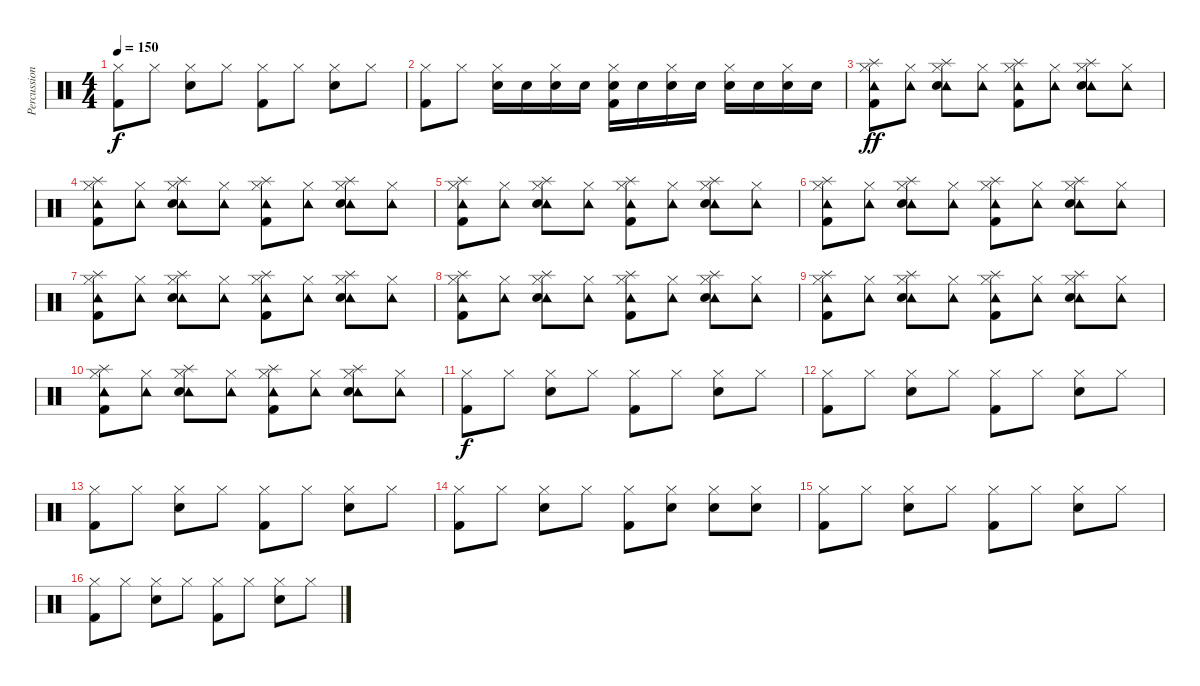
\track ("Percussion" "Percussion") {instrument percussion}
\staff {score}
\articulation defaults
\ts (4 4)
\tempo 150
\clef neutral
\ks c
("Hi-Hat (closed)" "Kick (hit) 2").8{dy f} "Hi-Hat (closed)".8 ("Hi-Hat (closed)" "Electric Snare (hit)").8 "Hi-Hat (closed)".8 ("Hi-Hat (closed)" "Kick (hit) 2").8 "Hi-Hat (closed)".8 ("Hi-Hat (closed)" "Electric Snare (hit)").8 "Hi-Hat (closed)".8 |
("Hi-Hat (closed)" "Kick (hit) 2").8 "Hi-Hat (closed)".8 ("Hi-Hat (closed)" "Electric Snare (hit)").16 "Electric Snare (hit)".16 ("Hi-Hat (closed)" "Electric Snare (hit)").16 "Electric Snare (hit)".16 ("Hi-Hat (closed)" "Electric Snare (hit)" "Kick (hit) 2").16 "Electric Snare (hit)".16 ("Hi-Hat (closed)" "Electric Snare (hit)").16 "Electric Snare (hit)".16 ("Hi-Hat (closed)" "Electric Snare (hit)").16 "Electric Snare (hit)".16 ("Hi-Hat (closed)" "Electric Snare (hit)").16 "Electric Snare (hit)".16 |
("Hi-Hat (closed)" "Tambourine (hit)" "Kick (hit) 2" "Splash (hit)").8{dy ff} ("Hi-Hat (closed)" "Tambourine (hit)").8 ("Hi-Hat (closed)" "Tambourine (hit)" "Electric Snare (hit)" "Splash (hit)").8 ("Hi-Hat (closed)" "Tambourine (hit)").8 ("Hi-Hat (closed)" "Tambourine (hit)" "Kick (hit) 2" "Splash (hit)").8 ("Hi-Hat (closed)" "Tambourine (hit)").8 ("Hi-Hat (closed)" "Tambourine (hit)" "Electric Snare (hit)" "Splash (hit)").8 ("Hi-Hat (closed)" "Tambourine (hit)").8 |
("Hi-Hat (closed)" "Tambourine (hit)" "Kick (hit) 2" "Splash (hit)").8 ("Hi-Hat (closed)" "Tambourine (hit)").8 ("Hi-Hat (closed)" "Tambourine (hit)" "Electric Snare (hit)" "Splash (hit)").8 ("Hi-Hat (closed)" "Tambourine (hit)").8 ("Hi-Hat (closed)" "Tambourine (hit)" "Kick (hit) 2" "Splash (hit)").8 ("Hi-Hat (closed)" "Tambourine (hit)").8 ("Hi-Hat (closed)" "Tambourine (hit)" "Electric Snare (hit)" "Splash (hit)").8 ("Hi-Hat (closed)" "Tambourine (hit)").8 |
("Hi-Hat (closed)" "Tambourine (hit)" "Kick (hit) 2" "Splash (hit)").8 ("Hi-Hat (closed)" "Tambourine (hit)").8 ("Hi-Hat (closed)" "Tambourine (hit)" "Electric Snare (hit)" "Splash (hit)").8 ("Hi-Hat (closed)" "Tambourine (hit)").8 ("Hi-Hat (closed)" "Tambourine (hit)" "Kick (hit) 2" "Splash (hit)").8 ("Hi-Hat (closed)" "Tambourine (hit)").8 ("Hi-Hat (closed)" "Tambourine (hit)" "Electric Snare (hit)" "Splash (hit)").8 ("Hi-Hat (closed)" "Tambourine (hit)").8 |
("Hi-Hat (closed)" "Tambourine (hit)" "Kick (hit) 2" "Splash (hit)").8 ("Hi-Hat (closed)" "Tambourine (hit)").8 ("Hi-Hat (closed)" "Tambourine (hit)" "Electric Snare (hit)" "Splash (hit)").8 ("Hi-Hat (closed)" "Tambourine (hit)").8 ("Hi-Hat (closed)" "Tambourine (hit)" "Kick (hit) 2" "Splash (hit)").8 ("Hi-Hat (closed)" "Tambourine (hit)").8 ("Hi-Hat (closed)" "Tambourine (hit)" "Electric Snare (hit)" "Splash (hit)").8 ("Hi-Hat (closed)" "Tambourine (hit)").8 |
("Hi-Hat (closed)" "Tambourine (hit)" "Kick (hit) 2" "Splash (hit)").8 ("Hi-Hat (closed)" "Tambourine (hit)").8 ("Hi-Hat (closed)" "Tambourine (hit)" "Electric Snare (hit)" "Splash (hit)").8 ("Hi-Hat (closed)" "Tambourine (hit)").8 ("Hi-Hat (closed)" "Tambourine (hit)" "Kick (hit) 2" "Splash (hit)").8 ("Hi-Hat (closed)" "Tambourine (hit)").8 ("Hi-Hat (closed)" "Tambourine (hit)" "Electric Snare (hit)" "Splash (hit)").8 ("Hi-Hat (closed)" "Tambourine (hit)").8 |
("Hi-Hat (closed)" "Tambourine (hit)" "Kick (hit) 2" "Splash (hit)").8 ("Hi-Hat (closed)" "Tambourine (hit)").8 ("Hi-Hat (closed)" "Tambourine (hit)" "Electric Snare (hit)" "Splash (hit)").8 ("Hi-Hat (closed)" "Tambourine (hit)").8 ("Hi-Hat (closed)" "Tambourine (hit)" "Kick (hit) 2" "Splash (hit)").8 ("Hi-Hat (closed)" "Tambourine (hit)").8 ("Hi-Hat (closed)" "Tambourine (hit)" "Electric Snare (hit)" "Splash (hit)").8 ("Hi-Hat (closed)" "Tambourine (hit)").8 |
("Hi-Hat (closed)" "Tambourine (hit)" "Kick (hit) 2" "Splash (hit)").8 ("Hi-Hat (closed)" "Tambourine (hit)").8 ("Hi-Hat (closed)" "Tambourine (hit)" "Electric Snare (hit)" "Splash (hit)").8 ("Hi-Hat (closed)" "Tambourine (hit)").8 ("Hi-Hat (closed)" "Tambourine (hit)" "Kick (hit) 2" "Splash (hit)").8 ("Hi-Hat (closed)" "Tambourine (hit)").8 ("Hi-Hat (closed)" "Tambourine (hit)" "Electric Snare (hit)" "Splash (hit)").8 ("Hi-Hat (closed)" "Tambourine (hit)").8 |
("Hi-Hat (closed)" "Tambourine (hit)" "Kick (hit) 2" "Splash (hit)").8 ("Hi-Hat (closed)" "Tambourine (hit)").8 ("Hi-Hat (closed)" "Tambourine (hit)" "Electric Snare (hit)" "Splash (hit)").8 ("Hi-Hat (closed)" "Tambourine (hit)").8 ("Hi-Hat (closed)" "Tambourine (hit)" "Kick (hit) 2" "Splash (hit)").8 ("Hi-Hat (closed)" "Tambourine (hit)").8 ("Hi-Hat (closed)" "Tambourine (hit)" "Electric Snare (hit)" "Splash (hit)").8 ("Hi-Hat (closed)" "Tambourine (hit)").8 |
("Hi-Hat (closed)" "Kick (hit) 2").8{dy f} "Hi-Hat (closed)".8 ("Hi-Hat (closed)" "Electric Snare (hit)").8 "Hi-Hat (closed)".8 ("Hi-Hat (closed)" "Kick (hit) 2").8 "Hi-Hat (closed)".8 ("Hi-Hat (closed)" "Electric Snare (hit)").8 "Hi-Hat (closed)".8 |
("Hi-Hat (closed)" "Kick (hit) 2").8 "Hi-Hat (closed)".8 ("Hi-Hat (closed)" "Electric Snare (hit)").8 "Hi-Hat (closed)".8 ("Hi-Hat (closed)" "Kick (hit) 2").8 "Hi-Hat (closed)".8 ("Hi-Hat (closed)" "Electric Snare (hit)").8 "Hi-Hat (closed)".8 |
("Hi-Hat (closed)" "Kick (hit) 2").8 "Hi-Hat (closed)".8 ("Hi-Hat (closed)" "Electric Snare (hit)").8 "Hi-Hat (closed)".8 ("Hi-Hat (closed)" "Kick (hit) 2").8 "Hi-Hat (closed)".8 ("Hi-Hat (closed)" "Electric Snare (hit)").8 "Hi-Hat (closed)".8 |
("Hi-Hat (closed)" "Kick (hit) 2").8 "Hi-Hat (closed)".8 ("Hi-Hat (closed)" "Electric Snare (hit)").8 "Hi-Hat (closed)".8 ("Hi-Hat (closed)" "Kick (hit) 2").8 ("Hi-Hat (closed)" "Hand Clap (hit)").8 ("Hi-Hat (closed)" "Electric Snare (hit)").8 ("Hi-Hat (closed)" "Hand Clap (hit)").8 |
("Hi-Hat (closed)" "Kick (hit) 2").8 "Hi-Hat (closed)".8 ("Hi-Hat (closed)" "Electric Snare (hit)").8 "Hi-Hat (closed)".8 ("Hi-Hat (closed)" "Kick (hit) 2").8 "Hi-Hat (closed)".8 ("Hi-Hat (closed)" "Electric Snare (hit)").8 "Hi-Hat (closed)".8 |
("Hi-Hat (closed)" "Kick (hit) 2").8 "Hi-Hat (closed)".8 ("Hi-Hat (closed)" "Electric Snare (hit)").8 "Hi-Hat (closed)".8 ("Hi-Hat (closed)" "Kick (hit) 2").8 "Hi-Hat (closed)".8 ("Hi-Hat (closed)" "Electric Snare (hit)").8 "Hi-Hat (closed)".8
